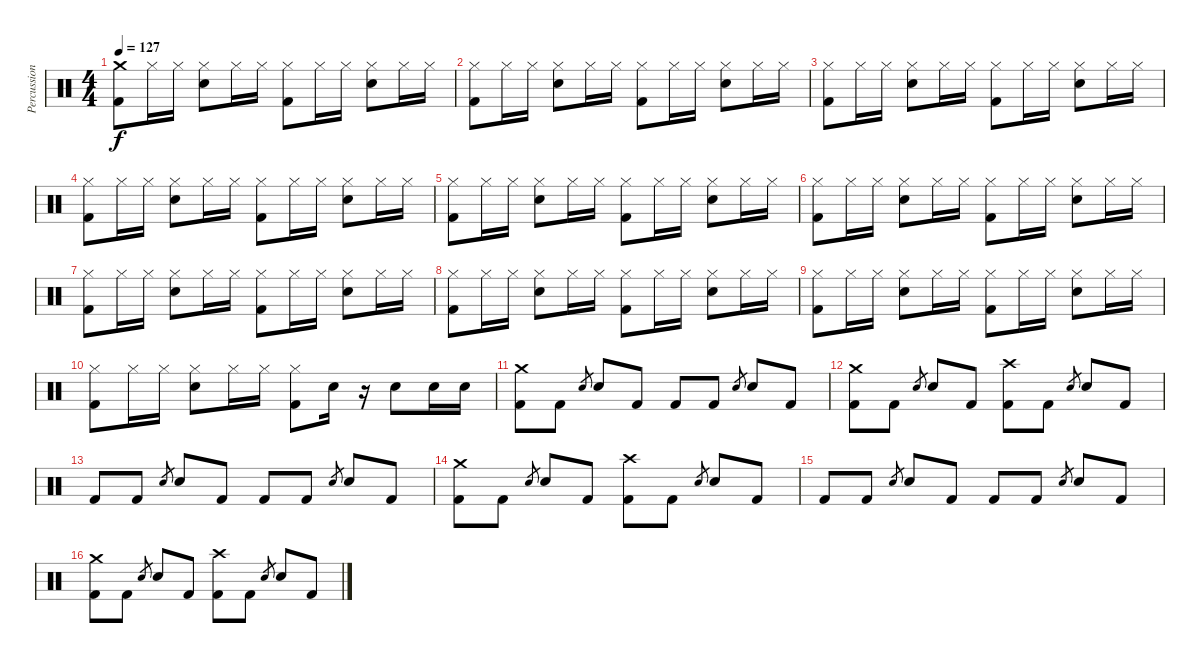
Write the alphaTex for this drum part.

\track ("Percussion" "Percussion") {instrument percussion}
\staff {score}
\articulation defaults
\ts (4 4)
\tempo 127
\clef neutral
\ks c
("Crash medium (hit)" "Kick (hit) 2").8{dy f} "Hi-Hat (closed)".16 "Hi-Hat (closed)".16 ("Hi-Hat (closed)" "Electric Snare (hit)").8 "Hi-Hat (closed)".16 "Hi-Hat (closed)".16 ("Hi-Hat (closed)" "Kick (hit) 2").8 "Hi-Hat (closed)".16 "Hi-Hat (closed)".16 ("Hi-Hat (closed)" "Electric Snare (hit)").8 "Hi-Hat (closed)".16 "Hi-Hat (closed)".16 |
("Hi-Hat (closed)" "Kick (hit) 2").8 "Hi-Hat (closed)".16 "Hi-Hat (closed)".16 ("Hi-Hat (closed)" "Electric Snare (hit)").8 "Hi-Hat (closed)".16 "Hi-Hat (closed)".16 ("Hi-Hat (closed)" "Kick (hit) 2").8 "Hi-Hat (closed)".16 "Hi-Hat (closed)".16 ("Hi-Hat (closed)" "Electric Snare (hit)").8 "Hi-Hat (closed)".16 "Hi-Hat (closed)".16 |
("Hi-Hat (closed)" "Kick (hit) 2").8 "Hi-Hat (closed)".16 "Hi-Hat (closed)".16 ("Hi-Hat (closed)" "Electric Snare (hit)").8 "Hi-Hat (closed)".16 "Hi-Hat (closed)".16 ("Hi-Hat (closed)" "Kick (hit) 2").8 "Hi-Hat (closed)".16 "Hi-Hat (closed)".16 ("Hi-Hat (closed)" "Electric Snare (hit)").8 "Hi-Hat (closed)".16 "Hi-Hat (closed)".16 |
("Hi-Hat (closed)" "Kick (hit) 2").8 "Hi-Hat (closed)".16 "Hi-Hat (closed)".16 ("Hi-Hat (closed)" "Electric Snare (hit)").8 "Hi-Hat (closed)".16 "Hi-Hat (closed)".16 ("Hi-Hat (closed)" "Kick (hit) 2").8 "Hi-Hat (closed)".16 "Hi-Hat (closed)".16 ("Hi-Hat (closed)" "Electric Snare (hit)").8 "Hi-Hat (closed)".16 "Hi-Hat (closed)".16 |
("Hi-Hat (closed)" "Kick (hit) 2").8 "Hi-Hat (closed)".16 "Hi-Hat (closed)".16 ("Hi-Hat (closed)" "Electric Snare (hit)").8 "Hi-Hat (closed)".16 "Hi-Hat (closed)".16 ("Hi-Hat (closed)" "Kick (hit) 2").8 "Hi-Hat (closed)".16 "Hi-Hat (closed)".16 ("Hi-Hat (closed)" "Electric Snare (hit)").8 "Hi-Hat (closed)".16 "Hi-Hat (closed)".16 |
("Hi-Hat (closed)" "Kick (hit) 2").8 "Hi-Hat (closed)".16 "Hi-Hat (closed)".16 ("Hi-Hat (closed)" "Electric Snare (hit)").8 "Hi-Hat (closed)".16 "Hi-Hat (closed)".16 ("Hi-Hat (closed)" "Kick (hit) 2").8 "Hi-Hat (closed)".16 "Hi-Hat (closed)".16 ("Hi-Hat (closed)" "Electric Snare (hit)").8 "Hi-Hat (closed)".16 "Hi-Hat (closed)".16 |
("Hi-Hat (closed)" "Kick (hit) 2").8 "Hi-Hat (closed)".16 "Hi-Hat (closed)".16 ("Hi-Hat (closed)" "Electric Snare (hit)").8 "Hi-Hat (closed)".16 "Hi-Hat (closed)".16 ("Hi-Hat (closed)" "Kick (hit) 2").8 "Hi-Hat (closed)".16 "Hi-Hat (closed)".16 ("Hi-Hat (closed)" "Electric Snare (hit)").8 "Hi-Hat (closed)".16 "Hi-Hat (closed)".16 |
("Hi-Hat (closed)" "Kick (hit) 2").8 "Hi-Hat (closed)".16 "Hi-Hat (closed)".16 ("Hi-Hat (closed)" "Electric Snare (hit)").8 "Hi-Hat (closed)".16 "Hi-Hat (closed)".16 ("Hi-Hat (closed)" "Kick (hit) 2").8 "Hi-Hat (closed)".16 "Hi-Hat (closed)".16 ("Hi-Hat (closed)" "Electric Snare (hit)").8 "Hi-Hat (closed)".16 "Hi-Hat (closed)".16 |
("Hi-Hat (closed)" "Kick (hit) 2").8 "Hi-Hat (closed)".16 "Hi-Hat (closed)".16 ("Hi-Hat (closed)" "Electric Snare (hit)").8 "Hi-Hat (closed)".16 "Hi-Hat (closed)".16 ("Hi-Hat (closed)" "Kick (hit) 2").8 "Hi-Hat (closed)".16 "Hi-Hat (closed)".16 ("Hi-Hat (closed)" "Electric Snare (hit)").8 "Hi-Hat (closed)".16 "Hi-Hat (closed)".16 |
("Hi-Hat (closed)" "Kick (hit) 2").8 "Hi-Hat (closed)".16 "Hi-Hat (closed)".16 ("Hi-Hat (closed)" "Electric Snare (hit)").8 "Hi-Hat (closed)".16 "Hi-Hat (closed)".16 ("Hi-Hat (closed)" "Kick (hit) 2").8 "Electric Snare (hit)".16 r.16 "Electric Snare (hit)".8 "Electric Snare (hit)".16 "Electric Snare (hit)".16 |
("Crash medium (hit)" "Kick (hit) 2").8 "Kick (hit) 2".8 "Electric Snare (hit)".8{gr} "Electric Snare (hit)".8 "Kick (hit) 2".8 "Kick (hit) 2".8 "Kick (hit) 2".8 "Electric Snare (hit)".8{gr} "Electric Snare (hit)".8 "Kick (hit) 2".8 |
("Crash medium (hit)" "Kick (hit) 2").8 "Kick (hit) 2".8 "Electric Snare (hit)".8{gr} "Electric Snare (hit)".8 "Kick (hit) 2".8 ("Crash high (hit)" "Kick (hit) 2").8 "Kick (hit) 2".8 "Electric Snare (hit)".8{gr} "Electric Snare (hit)".8 "Kick (hit) 2".8 |
"Kick (hit) 2".8 "Kick (hit) 2".8 "Electric Snare (hit)".8{gr} "Electric Snare (hit)".8 "Kick (hit) 2".8 "Kick (hit) 2".8 "Kick (hit) 2".8 "Electric Snare (hit)".8{gr} "Electric Snare (hit)".8 "Kick (hit) 2".8 |
("Crash medium (hit)" "Kick (hit) 2").8 "Kick (hit) 2".8 "Electric Snare (hit)".8{gr} "Electric Snare (hit)".8 "Kick (hit) 2".8 ("Crash high (hit)" "Kick (hit) 2").8 "Kick (hit) 2".8 "Electric Snare (hit)".8{gr} "Electric Snare (hit)".8 "Kick (hit) 2".8 |
"Kick (hit) 2".8 "Kick (hit) 2".8 "Electric Snare (hit)".8{gr} "Electric Snare (hit)".8 "Kick (hit) 2".8 "Kick (hit) 2".8 "Kick (hit) 2".8 "Electric Snare (hit)".8{gr} "Electric Snare (hit)".8 "Kick (hit) 2".8 |
("Crash medium (hit)" "Kick (hit) 2").8 "Kick (hit) 2".8 "Electric Snare (hit)".8{gr} "Electric Snare (hit)".8 "Kick (hit) 2".8 ("Crash high (hit)" "Kick (hit) 2").8 "Kick (hit) 2".8 "Electric Snare (hit)".8{gr} "Electric Snare (hit)".8 "Kick (hit) 2".8
